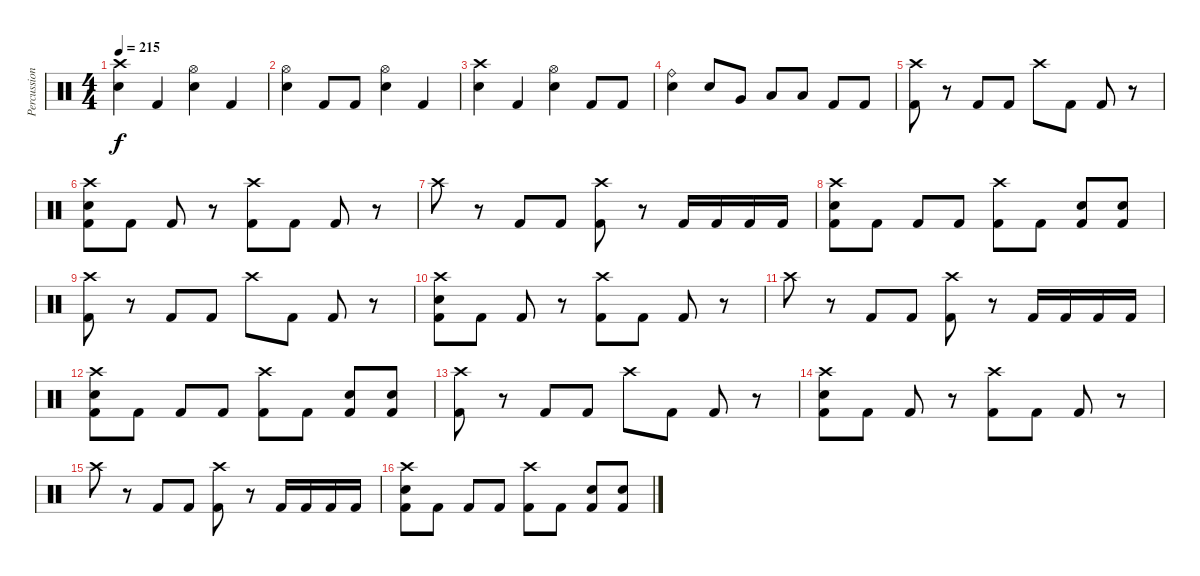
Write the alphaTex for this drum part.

\track ("Percussion" "Percussion") {instrument percussion}
\staff {score}
\articulation defaults
\ts (4 4)
\tempo 215
\clef neutral
\ks c
("Crash high (hit)" "Electric Snare (hit)").4{dy f} "Kick (hit) 2".4 ("Hi-Hat (open)" "Electric Snare (hit)").4 "Kick (hit) 2".4 |
("Hi-Hat (open)" "Electric Snare (hit)").4 "Kick (hit) 2".8 "Kick (hit) 2".8 ("Hi-Hat (open)" "Electric Snare (hit)").4 "Kick (hit) 2".4 |
("Crash high (hit)" "Electric Snare (hit)").4 "Kick (hit) 2".4 ("Hi-Hat (open)" "Electric Snare (hit)").4 "Kick (hit) 2".8 "Kick (hit) 2".8 |
("Ride (bell)" "Electric Snare (hit)").4 "Electric Snare (hit)".8 "Very Low Tom (hit)".8 "Low Tom (hit)".8 "Low Tom (hit)".8 "Kick (hit) 2".8 "Kick (hit) 2".8 |
("Crash high (hit)" "Kick (hit) 2").8 r.8 "Kick (hit) 2".8 "Kick (hit) 2".8 "Crash high (hit)".8 "Kick (hit) 2".8 "Kick (hit) 2".8 r.8 |
("Crash high (hit)" "Electric Snare (hit)" "Kick (hit) 2").8 "Kick (hit) 2".8 "Kick (hit) 2".8 r.8 ("Crash high (hit)" "Kick (hit) 2").8 "Kick (hit) 2".8 "Kick (hit) 2".8 r.8 |
"Crash high (hit)".8 r.8 "Kick (hit) 2".8 "Kick (hit) 2".8 ("Crash high (hit)" "Kick (hit) 2").8 r.8 "Kick (hit) 2".16 "Kick (hit) 2".16 "Kick (hit) 2".16 "Kick (hit) 2".16 |
("Crash high (hit)" "Electric Snare (hit)" "Kick (hit) 2").8 "Kick (hit) 2".8 "Kick (hit) 2".8 "Kick (hit) 2".8 ("Crash high (hit)" "Kick (hit) 2").8 "Kick (hit) 2".8 ("Electric Snare (hit)" "Kick (hit) 2").8 ("Electric Snare (hit)" "Kick (hit) 2").8 |
("Crash high (hit)" "Kick (hit) 2").8 r.8 "Kick (hit) 2".8 "Kick (hit) 2".8 "Crash high (hit)".8 "Kick (hit) 2".8 "Kick (hit) 2".8 r.8 |
("Crash high (hit)" "Electric Snare (hit)" "Kick (hit) 2").8 "Kick (hit) 2".8 "Kick (hit) 2".8 r.8 ("Crash high (hit)" "Kick (hit) 2").8 "Kick (hit) 2".8 "Kick (hit) 2".8 r.8 |
"Crash high (hit)".8 r.8 "Kick (hit) 2".8 "Kick (hit) 2".8 ("Crash high (hit)" "Kick (hit) 2").8 r.8 "Kick (hit) 2".16 "Kick (hit) 2".16 "Kick (hit) 2".16 "Kick (hit) 2".16 |
("Crash high (hit)" "Electric Snare (hit)" "Kick (hit) 2").8 "Kick (hit) 2".8 "Kick (hit) 2".8 "Kick (hit) 2".8 ("Crash high (hit)" "Kick (hit) 2").8 "Kick (hit) 2".8 ("Electric Snare (hit)" "Kick (hit) 2").8 ("Electric Snare (hit)" "Kick (hit) 2").8 |
("Crash high (hit)" "Kick (hit) 2").8 r.8 "Kick (hit) 2".8 "Kick (hit) 2".8 "Crash high (hit)".8 "Kick (hit) 2".8 "Kick (hit) 2".8 r.8 |
("Crash high (hit)" "Electric Snare (hit)" "Kick (hit) 2").8 "Kick (hit) 2".8 "Kick (hit) 2".8 r.8 ("Crash high (hit)" "Kick (hit) 2").8 "Kick (hit) 2".8 "Kick (hit) 2".8 r.8 |
"Crash high (hit)".8 r.8 "Kick (hit) 2".8 "Kick (hit) 2".8 ("Crash high (hit)" "Kick (hit) 2").8 r.8 "Kick (hit) 2".16 "Kick (hit) 2".16 "Kick (hit) 2".16 "Kick (hit) 2".16 |
("Crash high (hit)" "Electric Snare (hit)" "Kick (hit) 2").8 "Kick (hit) 2".8 "Kick (hit) 2".8 "Kick (hit) 2".8 ("Crash high (hit)" "Kick (hit) 2").8 "Kick (hit) 2".8 ("Electric Snare (hit)" "Kick (hit) 2").8 ("Electric Snare (hit)" "Kick (hit) 2").8
